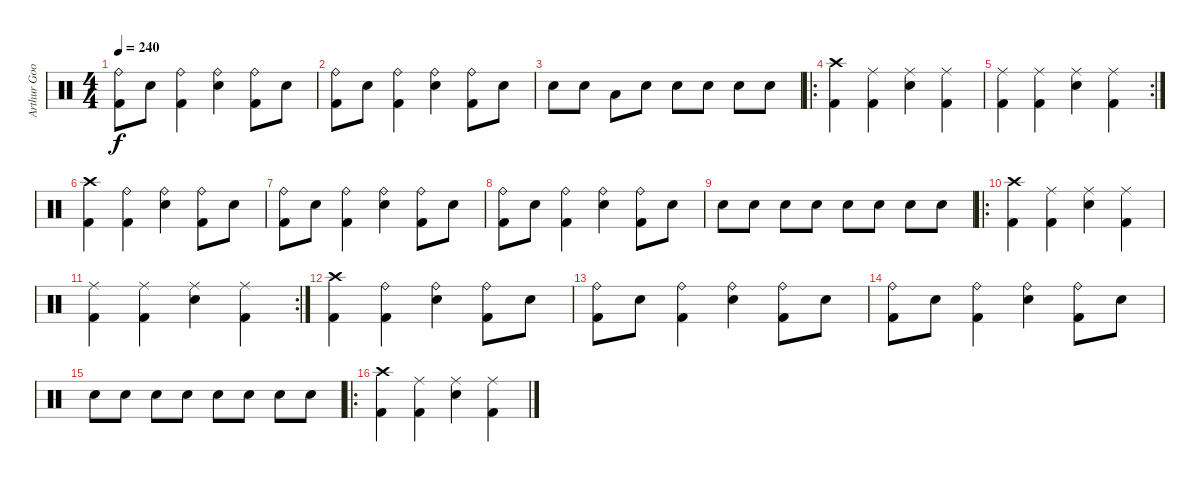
\track ("Arthur Googy" "Arthur Goo") {instrument percussion}
\staff {score}
\articulation defaults
\ts (4 4)
\tempo 240
\clef neutral
\ks c
("Ride (bell)" "Kick (hit) 2").8{dy f} "Electric Snare (hit)".8 ("Ride (bell)" "Kick (hit) 2").4 ("Ride (bell)" "Electric Snare (hit)").4 ("Ride (bell)" "Kick (hit) 2").8 "Electric Snare (hit)".8 |
("Ride (bell)" "Kick (hit) 2").8 "Electric Snare (hit)".8 ("Ride (bell)" "Kick (hit) 2").4 ("Ride (bell)" "Electric Snare (hit)").4 ("Ride (bell)" "Kick (hit) 2").8 "Electric Snare (hit)".8 |
"Electric Snare (hit)".8 "Electric Snare (hit)".8 "Low Tom (hit)".8 "Electric Snare (hit)".8 "Electric Snare (hit)".8 "Electric Snare (hit)".8 "Electric Snare (hit)".8 "Electric Snare (hit)".8 |
\ro
("Crash high (hit)" "Kick (hit) 2").4 ("Ride (middle)" "Kick (hit) 2").4 ("Ride (middle)" "Electric Snare (hit)").4 ("Ride (middle)" "Kick (hit) 2").4 |
\rc 2
("Ride (middle)" "Kick (hit) 2").4 ("Ride (middle)" "Kick (hit) 2").4 ("Ride (middle)" "Electric Snare (hit)").4 ("Ride (middle)" "Kick (hit) 2").4 |
("Crash high (hit)" "Kick (hit) 2").4 ("Ride (bell)" "Kick (hit) 2").4 ("Ride (bell)" "Electric Snare (hit)").4 ("Ride (bell)" "Kick (hit) 2").8 "Electric Snare (hit)".8 |
("Ride (bell)" "Kick (hit) 2").8 "Electric Snare (hit)".8 ("Ride (bell)" "Kick (hit) 2").4 ("Ride (bell)" "Electric Snare (hit)").4 ("Ride (bell)" "Kick (hit) 2").8 "Electric Snare (hit)".8 |
("Ride (bell)" "Kick (hit) 2").8 "Electric Snare (hit)".8 ("Ride (bell)" "Kick (hit) 2").4 ("Ride (bell)" "Electric Snare (hit)").4 ("Ride (bell)" "Kick (hit) 2").8 "Electric Snare (hit)".8 |
"Electric Snare (hit)".8 "Electric Snare (hit)".8 "Electric Snare (hit)".8 "Electric Snare (hit)".8 "Electric Snare (hit)".8 "Electric Snare (hit)".8 "Electric Snare (hit)".8 "Electric Snare (hit)".8 |
\ro
("Crash high (hit)" "Kick (hit) 2").4 ("Ride (middle)" "Kick (hit) 2").4 ("Ride (middle)" "Electric Snare (hit)").4 ("Ride (middle)" "Kick (hit) 2").4 |
\rc 2
("Ride (middle)" "Kick (hit) 2").4 ("Ride (middle)" "Kick (hit) 2").4 ("Ride (middle)" "Electric Snare (hit)").4 ("Ride (middle)" "Kick (hit) 2").4 |
("Crash high (hit)" "Kick (hit) 2").4 ("Ride (bell)" "Kick (hit) 2").4 ("Ride (bell)" "Electric Snare (hit)").4 ("Ride (bell)" "Kick (hit) 2").8 "Electric Snare (hit)".8 |
("Ride (bell)" "Kick (hit) 2").8 "Electric Snare (hit)".8 ("Ride (bell)" "Kick (hit) 2").4 ("Ride (bell)" "Electric Snare (hit)").4 ("Ride (bell)" "Kick (hit) 2").8 "Electric Snare (hit)".8 |
("Ride (bell)" "Kick (hit) 2").8 "Electric Snare (hit)".8 ("Ride (bell)" "Kick (hit) 2").4 ("Ride (bell)" "Electric Snare (hit)").4 ("Ride (bell)" "Kick (hit) 2").8 "Electric Snare (hit)".8 |
"Electric Snare (hit)".8 "Electric Snare (hit)".8 "Electric Snare (hit)".8 "Electric Snare (hit)".8 "Electric Snare (hit)".8 "Electric Snare (hit)".8 "Electric Snare (hit)".8 "Electric Snare (hit)".8 |
\ro
("Crash high (hit)" "Kick (hit) 2").4 ("Ride (middle)" "Kick (hit) 2").4 ("Ride (middle)" "Electric Snare (hit)").4 ("Ride (middle)" "Kick (hit) 2").4
